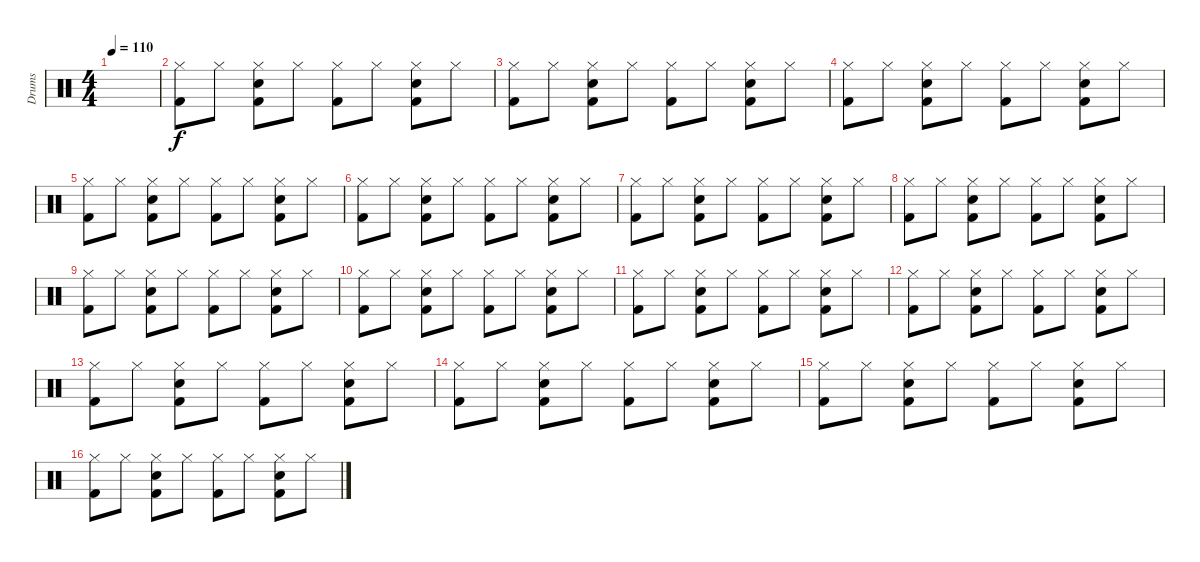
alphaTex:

\track ("Drums" "Drums") {instrument percussion}
\staff {score}
\articulation defaults
\ts (4 4)
\tempo 110
\clef neutral
\ks c
|
("Hi-Hat (closed)" "Kick (hit) 2").8 "Hi-Hat (closed)".8 ("Hi-Hat (closed)" "Snare (hit) 2" "Kick (hit) 2").8 "Hi-Hat (closed)".8 ("Hi-Hat (closed)" "Kick (hit) 2").8 "Hi-Hat (closed)".8 ("Hi-Hat (closed)" "Snare (hit) 2" "Kick (hit) 2").8 "Hi-Hat (closed)".8 |
("Hi-Hat (closed)" "Kick (hit) 2").8 "Hi-Hat (closed)".8 ("Hi-Hat (closed)" "Snare (hit) 2" "Kick (hit) 2").8 "Hi-Hat (closed)".8 ("Hi-Hat (closed)" "Kick (hit) 2").8 "Hi-Hat (closed)".8 ("Hi-Hat (closed)" "Snare (hit) 2" "Kick (hit) 2").8 "Hi-Hat (closed)".8 |
("Hi-Hat (closed)" "Kick (hit) 2").8 "Hi-Hat (closed)".8 ("Hi-Hat (closed)" "Snare (hit) 2" "Kick (hit) 2").8 "Hi-Hat (closed)".8 ("Hi-Hat (closed)" "Kick (hit) 2").8 "Hi-Hat (closed)".8 ("Hi-Hat (closed)" "Snare (hit) 2" "Kick (hit) 2").8 "Hi-Hat (closed)".8 |
("Hi-Hat (closed)" "Kick (hit) 2").8 "Hi-Hat (closed)".8 ("Hi-Hat (closed)" "Snare (hit) 2" "Kick (hit) 2").8 "Hi-Hat (closed)".8 ("Hi-Hat (closed)" "Kick (hit) 2").8 "Hi-Hat (closed)".8 ("Hi-Hat (closed)" "Snare (hit) 2" "Kick (hit) 2").8 "Hi-Hat (closed)".8 |
("Hi-Hat (closed)" "Kick (hit) 2").8 "Hi-Hat (closed)".8 ("Hi-Hat (closed)" "Snare (hit) 2" "Kick (hit) 2").8 "Hi-Hat (closed)".8 ("Hi-Hat (closed)" "Kick (hit) 2").8 "Hi-Hat (closed)".8 ("Hi-Hat (closed)" "Snare (hit) 2" "Kick (hit) 2").8 "Hi-Hat (closed)".8 |
("Hi-Hat (closed)" "Kick (hit) 2").8 "Hi-Hat (closed)".8 ("Hi-Hat (closed)" "Snare (hit) 2" "Kick (hit) 2").8 "Hi-Hat (closed)".8 ("Hi-Hat (closed)" "Kick (hit) 2").8 "Hi-Hat (closed)".8 ("Hi-Hat (closed)" "Snare (hit) 2" "Kick (hit) 2").8 "Hi-Hat (closed)".8 |
("Hi-Hat (closed)" "Kick (hit) 2").8 "Hi-Hat (closed)".8 ("Hi-Hat (closed)" "Snare (hit) 2" "Kick (hit) 2").8 "Hi-Hat (closed)".8 ("Hi-Hat (closed)" "Kick (hit) 2").8 "Hi-Hat (closed)".8 ("Hi-Hat (closed)" "Snare (hit) 2" "Kick (hit) 2").8 "Hi-Hat (closed)".8 |
("Hi-Hat (closed)" "Kick (hit) 2").8 "Hi-Hat (closed)".8 ("Hi-Hat (closed)" "Snare (hit) 2" "Kick (hit) 2").8 "Hi-Hat (closed)".8 ("Hi-Hat (closed)" "Kick (hit) 2").8 "Hi-Hat (closed)".8 ("Hi-Hat (closed)" "Snare (hit) 2" "Kick (hit) 2").8 "Hi-Hat (closed)".8 |
("Hi-Hat (closed)" "Kick (hit) 2").8 "Hi-Hat (closed)".8 ("Hi-Hat (closed)" "Snare (hit) 2" "Kick (hit) 2").8 "Hi-Hat (closed)".8 ("Hi-Hat (closed)" "Kick (hit) 2").8 "Hi-Hat (closed)".8 ("Hi-Hat (closed)" "Snare (hit) 2" "Kick (hit) 2").8 "Hi-Hat (closed)".8 |
("Hi-Hat (closed)" "Kick (hit) 2").8 "Hi-Hat (closed)".8 ("Hi-Hat (closed)" "Snare (hit) 2" "Kick (hit) 2").8 "Hi-Hat (closed)".8 ("Hi-Hat (closed)" "Kick (hit) 2").8 "Hi-Hat (closed)".8 ("Hi-Hat (closed)" "Snare (hit) 2" "Kick (hit) 2").8 "Hi-Hat (closed)".8 |
("Hi-Hat (closed)" "Kick (hit) 2").8 "Hi-Hat (closed)".8 ("Hi-Hat (closed)" "Snare (hit) 2" "Kick (hit) 2").8 "Hi-Hat (closed)".8 ("Hi-Hat (closed)" "Kick (hit) 2").8 "Hi-Hat (closed)".8 ("Hi-Hat (closed)" "Snare (hit) 2" "Kick (hit) 2").8 "Hi-Hat (closed)".8 |
("Hi-Hat (closed)" "Kick (hit) 2").8 "Hi-Hat (closed)".8 ("Hi-Hat (closed)" "Snare (hit) 2" "Kick (hit) 2").8 "Hi-Hat (closed)".8 ("Hi-Hat (closed)" "Kick (hit) 2").8 "Hi-Hat (closed)".8 ("Hi-Hat (closed)" "Snare (hit) 2" "Kick (hit) 2").8 "Hi-Hat (closed)".8 |
("Hi-Hat (closed)" "Kick (hit) 2").8 "Hi-Hat (closed)".8 ("Hi-Hat (closed)" "Snare (hit) 2" "Kick (hit) 2").8 "Hi-Hat (closed)".8 ("Hi-Hat (closed)" "Kick (hit) 2").8 "Hi-Hat (closed)".8 ("Hi-Hat (closed)" "Snare (hit) 2" "Kick (hit) 2").8 "Hi-Hat (closed)".8 |
("Hi-Hat (closed)" "Kick (hit) 2").8 "Hi-Hat (closed)".8 ("Hi-Hat (closed)" "Snare (hit) 2" "Kick (hit) 2").8 "Hi-Hat (closed)".8 ("Hi-Hat (closed)" "Kick (hit) 2").8 "Hi-Hat (closed)".8 ("Hi-Hat (closed)" "Snare (hit) 2" "Kick (hit) 2").8 "Hi-Hat (closed)".8 |
("Hi-Hat (closed)" "Kick (hit) 2").8 "Hi-Hat (closed)".8 ("Hi-Hat (closed)" "Snare (hit) 2" "Kick (hit) 2").8 "Hi-Hat (closed)".8 ("Hi-Hat (closed)" "Kick (hit) 2").8 "Hi-Hat (closed)".8 ("Hi-Hat (closed)" "Snare (hit) 2" "Kick (hit) 2").8 "Hi-Hat (closed)".8
